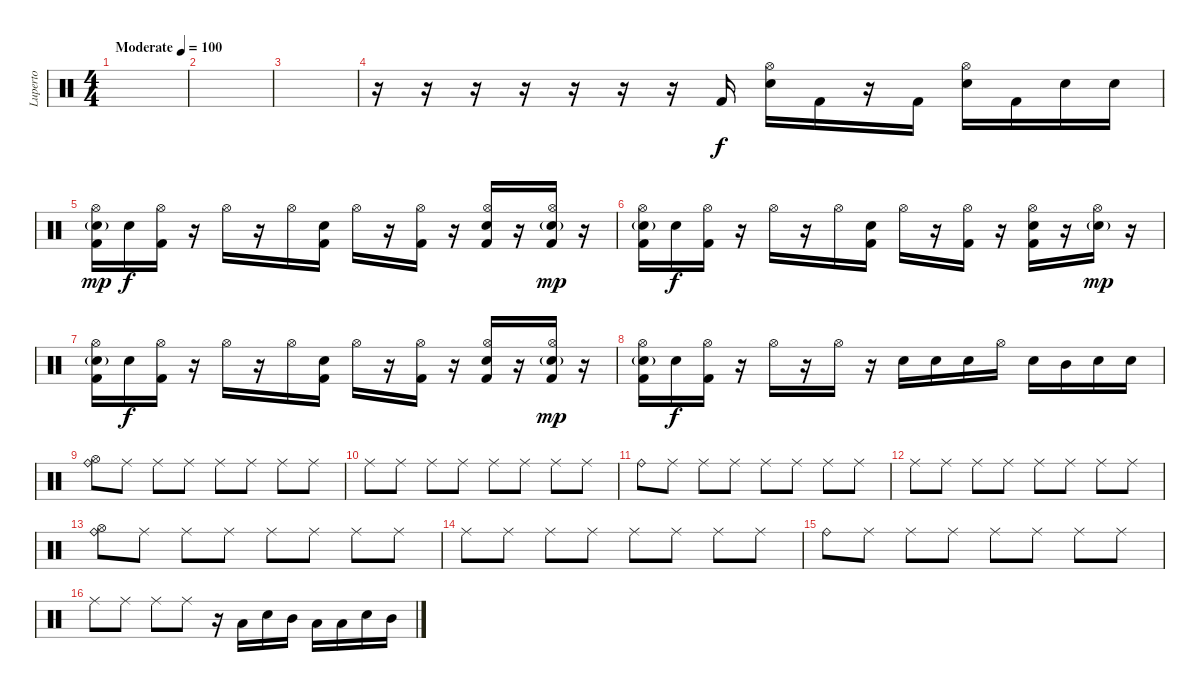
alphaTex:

\track ("Luperto" "Luperto") {instrument percussion}
\staff {score}
\articulation defaults
\ts (4 4)
\tempo (100 "Moderate")
\clef neutral
\ks c
|
|
|
r.16 r.16 r.16 r.16 r.16 r.16 r.16 "Kick (hit) 2".16 ("Hi-Hat (open)" "Snare (hit) 2").16 "Kick (hit) 2".16 r.16 "Kick (hit) 2".16 ("Hi-Hat (open)" "Snare (hit) 2").16 "Kick (hit) 2".16 "Snare (hit) 2".16 "Snare (hit) 2".16 |
("Hi-Hat (open)" "Snare (hit) 2"{g} "Kick (hit) 2").16{dy mp} "Snare (hit) 2".16{dy f} ("Hi-Hat (open)" "Kick (hit) 2").16 r.16 "Hi-Hat (open)".16 r.16 "Hi-Hat (open)".16 ("Snare (hit) 2" "Kick (hit) 2").16 "Hi-Hat (open)".16 r.16 ("Hi-Hat (open)" "Kick (hit) 2").16 r.16 ("Hi-Hat (open)" "Snare (hit) 2" "Kick (hit) 2").16 r.16 ("Hi-Hat (open)" "Snare (hit) 2"{g} "Kick (hit) 2").16{dy mp} r.16 |
("Hi-Hat (open)" "Snare (hit) 2"{g} "Kick (hit) 2").16 "Snare (hit) 2".16{dy f} ("Hi-Hat (open)" "Kick (hit) 2").16 r.16 "Hi-Hat (open)".16 r.16 "Hi-Hat (open)".16 ("Snare (hit) 2" "Kick (hit) 2").16 "Hi-Hat (open)".16 r.16 ("Hi-Hat (open)" "Kick (hit) 2").16 r.16 ("Hi-Hat (open)" "Snare (hit) 2" "Kick (hit) 2").16 r.16 ("Hi-Hat (open)" "Snare (hit) 2"{g}).16{dy mp} r.16 |
("Hi-Hat (open)" "Snare (hit) 2"{g} "Kick (hit) 2").16 "Snare (hit) 2".16{dy f} ("Hi-Hat (open)" "Kick (hit) 2").16 r.16 "Hi-Hat (open)".16 r.16 "Hi-Hat (open)".16 ("Snare (hit) 2" "Kick (hit) 2").16 "Hi-Hat (open)".16 r.16 ("Hi-Hat (open)" "Kick (hit) 2").16 r.16 ("Hi-Hat (open)" "Snare (hit) 2" "Kick (hit) 2").16 r.16 ("Hi-Hat (open)" "Snare (hit) 2"{g} "Kick (hit) 2").16{dy mp} r.16 |
("Hi-Hat (open)" "Snare (hit) 2"{g} "Kick (hit) 2").16 "Snare (hit) 2".16{dy f} ("Hi-Hat (open)" "Kick (hit) 2").16 r.16 "Hi-Hat (open)".16 r.16 "Hi-Hat (open)".16 r.16 "Snare (hit) 2".16 "Snare (hit) 2".16 "Snare (hit) 2".16 "Hi-Hat (open)".16 "Snare (hit) 2".16 "Mid Tom (hit)".16 "Snare (hit) 2".16 "Snare (hit) 2".16 |
("Hi-Hat (open)" "Ride (bell)").8 "Ride (middle)".8 "Ride (middle)".8 "Ride (middle)".8 "Ride (middle)".8 "Ride (middle)".8 "Ride (middle)".8 "Ride (middle)".8 |
"Ride (middle)".8 "Ride (middle)".8 "Ride (middle)".8 "Ride (middle)".8 "Ride (middle)".8 "Ride (middle)".8 "Ride (middle)".8 "Ride (middle)".8 |
"Ride (bell)".8 "Ride (middle)".8 "Ride (middle)".8 "Ride (middle)".8 "Ride (middle)".8 "Ride (middle)".8 "Ride (middle)".8 "Ride (middle)".8 |
"Ride (middle)".8 "Ride (middle)".8 "Ride (middle)".8 "Ride (middle)".8 "Ride (middle)".8 "Ride (middle)".8 "Ride (middle)".8 "Ride (middle)".8 |
("Hi-Hat (open)" "Ride (bell)").8 "Ride (middle)".8 "Ride (middle)".8 "Ride (middle)".8 "Ride (middle)".8 "Ride (middle)".8 "Ride (middle)".8 "Ride (middle)".8 |
"Ride (middle)".8 "Ride (middle)".8 "Ride (middle)".8 "Ride (middle)".8 "Ride (middle)".8 "Ride (middle)".8 "Ride (middle)".8 "Ride (middle)".8 |
"Ride (bell)".8 "Ride (middle)".8 "Ride (middle)".8 "Ride (middle)".8 "Ride (middle)".8 "Ride (middle)".8 "Ride (middle)".8 "Ride (middle)".8 |
"Ride (middle)".8 "Ride (middle)".8 "Ride (middle)".8 "Ride (middle)".8 r.16 "Low Tom (hit)".16 "Snare (hit) 2".16 "Mid Tom (hit)".16 "Low Floor Tom (hit)".16 "Low Tom (hit)".16 "Snare (hit) 2".16 "Mid Tom (hit)".16
